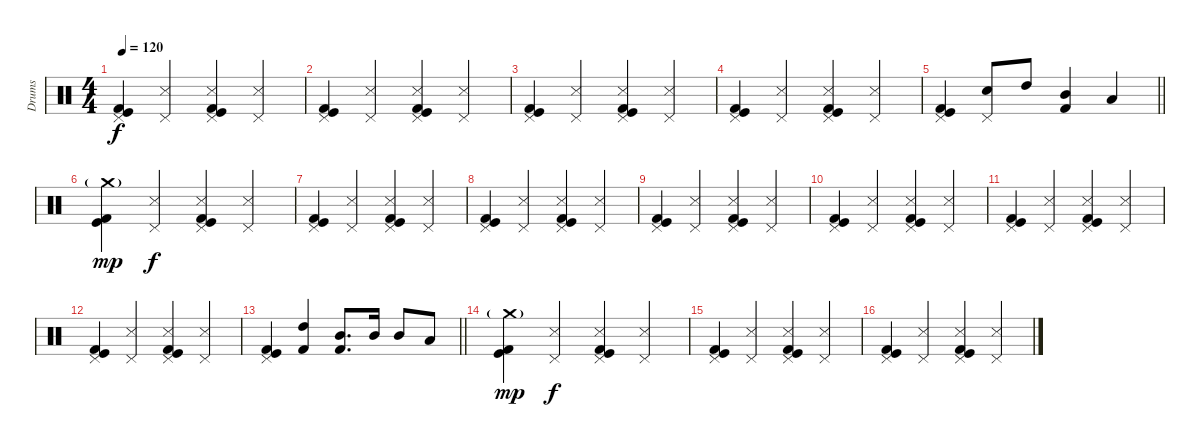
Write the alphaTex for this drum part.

\track ("Drums" "Drums") {instrument percussion}
\staff {score}
\articulation defaults
\ts (4 4)
\tempo 120
\clef neutral
\ks c
("Pedal Hi-Hat (hit)" "Kick (hit)" "Kick (hit) 2").4{dy f} ("Pedal Hi-Hat (hit)" "Snare (side stick) 3").4 ("Pedal Hi-Hat (hit)" "Snare (side stick) 3" "Kick (hit)" "Kick (hit) 2").4 ("Pedal Hi-Hat (hit)" "Snare (side stick) 3").4 |
("Pedal Hi-Hat (hit)" "Kick (hit)" "Kick (hit) 2").4 ("Pedal Hi-Hat (hit)" "Snare (side stick) 3").4 ("Pedal Hi-Hat (hit)" "Snare (side stick) 3" "Kick (hit)" "Kick (hit) 2").4 ("Pedal Hi-Hat (hit)" "Snare (side stick) 3").4 |
("Pedal Hi-Hat (hit)" "Kick (hit)" "Kick (hit) 2").4 ("Pedal Hi-Hat (hit)" "Snare (side stick) 3").4 ("Pedal Hi-Hat (hit)" "Snare (side stick) 3" "Kick (hit)" "Kick (hit) 2").4 ("Pedal Hi-Hat (hit)" "Snare (side stick) 3").4 |
("Pedal Hi-Hat (hit)" "Kick (hit)" "Kick (hit) 2").4 ("Pedal Hi-Hat (hit)" "Snare (side stick) 3").4 ("Pedal Hi-Hat (hit)" "Snare (side stick) 3" "Kick (hit)" "Kick (hit) 2").4 ("Pedal Hi-Hat (hit)" "Snare (side stick) 3").4 |
\barLineRight lightlight
("Pedal Hi-Hat (hit)" "Kick (hit)" "Kick (hit) 2").4 ("Pedal Hi-Hat (hit)" "Electric Snare (hit)").8 "High Tom (hit)".8 ("Kick (hit) 2" "Mid Tom (hit)").4 "Low Tom (hit)".4 |
\section ("" "")
("Crash medium (hit)"{g} "Kick (hit)" "Kick (hit) 2").4{dy mp} ("Pedal Hi-Hat (hit)" "Snare (side stick) 3").4{dy f} ("Pedal Hi-Hat (hit)" "Snare (side stick) 3" "Kick (hit)" "Kick (hit) 2").4 ("Pedal Hi-Hat (hit)" "Snare (side stick) 3").4 |
("Pedal Hi-Hat (hit)" "Kick (hit)" "Kick (hit) 2").4 ("Pedal Hi-Hat (hit)" "Snare (side stick) 3").4 ("Pedal Hi-Hat (hit)" "Snare (side stick) 3" "Kick (hit)" "Kick (hit) 2").4 ("Pedal Hi-Hat (hit)" "Snare (side stick) 3").4 |
("Pedal Hi-Hat (hit)" "Kick (hit)" "Kick (hit) 2").4 ("Pedal Hi-Hat (hit)" "Snare (side stick) 3").4 ("Pedal Hi-Hat (hit)" "Snare (side stick) 3" "Kick (hit)" "Kick (hit) 2").4 ("Pedal Hi-Hat (hit)" "Snare (side stick) 3").4 |
("Pedal Hi-Hat (hit)" "Kick (hit)" "Kick (hit) 2").4 ("Pedal Hi-Hat (hit)" "Snare (side stick) 3").4 ("Pedal Hi-Hat (hit)" "Snare (side stick) 3" "Kick (hit)" "Kick (hit) 2").4 ("Pedal Hi-Hat (hit)" "Snare (side stick) 3").4 |
("Pedal Hi-Hat (hit)" "Kick (hit)" "Kick (hit) 2").4 ("Pedal Hi-Hat (hit)" "Snare (side stick) 3").4 ("Pedal Hi-Hat (hit)" "Snare (side stick) 3" "Kick (hit)" "Kick (hit) 2").4 ("Pedal Hi-Hat (hit)" "Snare (side stick) 3").4 |
("Pedal Hi-Hat (hit)" "Kick (hit)" "Kick (hit) 2").4 ("Pedal Hi-Hat (hit)" "Snare (side stick) 3").4 ("Pedal Hi-Hat (hit)" "Snare (side stick) 3" "Kick (hit)" "Kick (hit) 2").4 ("Pedal Hi-Hat (hit)" "Snare (side stick) 3").4 |
("Pedal Hi-Hat (hit)" "Kick (hit)" "Kick (hit) 2").4 ("Pedal Hi-Hat (hit)" "Snare (side stick) 3").4 ("Pedal Hi-Hat (hit)" "Snare (side stick) 3" "Kick (hit)" "Kick (hit) 2").4 ("Pedal Hi-Hat (hit)" "Snare (side stick) 3").4 |
\barLineRight lightlight
("Pedal Hi-Hat (hit)" "Kick (hit)" "Kick (hit) 2").4 ("Kick (hit) 2" "High Tom (hit)").4 ("Kick (hit) 2" "Mid Tom (hit)").8{d} "Mid Tom (hit)".16 "Mid Tom (hit)".8 "Low Tom (hit)".8 |
\section ("" "")
("Crash medium (hit)"{g} "Kick (hit)" "Kick (hit) 2").4{dy mp} ("Pedal Hi-Hat (hit)" "Snare (side stick) 3").4{dy f} ("Pedal Hi-Hat (hit)" "Snare (side stick) 3" "Kick (hit)" "Kick (hit) 2").4 ("Pedal Hi-Hat (hit)" "Snare (side stick) 3").4 |
("Pedal Hi-Hat (hit)" "Kick (hit)" "Kick (hit) 2").4 ("Pedal Hi-Hat (hit)" "Snare (side stick) 3").4 ("Pedal Hi-Hat (hit)" "Snare (side stick) 3" "Kick (hit)" "Kick (hit) 2").4 ("Pedal Hi-Hat (hit)" "Snare (side stick) 3").4 |
("Pedal Hi-Hat (hit)" "Kick (hit)" "Kick (hit) 2").4 ("Pedal Hi-Hat (hit)" "Snare (side stick) 3").4 ("Pedal Hi-Hat (hit)" "Snare (side stick) 3" "Kick (hit)" "Kick (hit) 2").4 ("Pedal Hi-Hat (hit)" "Snare (side stick) 3").4
